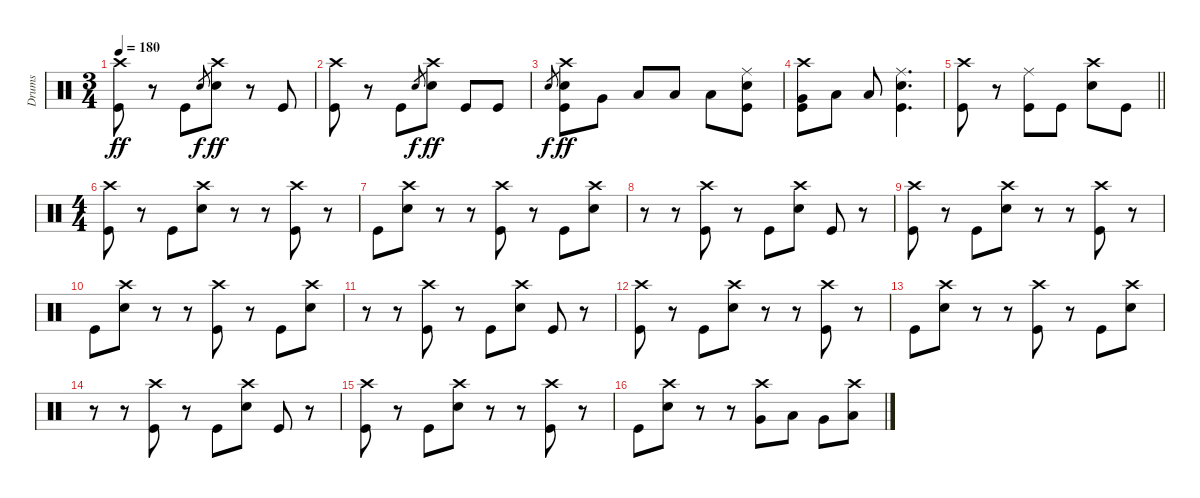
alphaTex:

\track ("Drums" "Drums") {instrument percussion}
\staff {score}
\articulation defaults
\ts (3 4)
\tempo 180
\clef neutral
\ks c
("Crash high (hit)" "Kick (hit)").8{dy ff} r.8 "Kick (hit)".8 "Snare (hit) 2".8{gr dy f} ("Crash high (hit)" "Snare (hit) 2").8{dy ff} r.8 "Kick (hit)".8 |
("Crash high (hit)" "Kick (hit)").8 r.8 "Kick (hit)".8 "Snare (hit) 2".8{gr dy f} ("Crash high (hit)" "Snare (hit) 2").8{dy ff} "Kick (hit)".8 "Kick (hit)".8 |
"Snare (hit) 2".8{gr dy f} ("Crash high (hit)" "Snare (hit) 2" "Kick (hit)").8{dy ff} "Very Low Tom (hit)".8 "Low Floor Tom (hit)".8 "Low Floor Tom (hit)".8 "Low Floor Tom (hit)".8 ("Ride (middle)" "Snare (hit) 2" "Kick (hit)").8 |
("Crash high (hit)" "Very Low Tom (hit)" "Kick (hit)").8 "Low Floor Tom (hit)".8 "Low Floor Tom (hit)".8 ("Ride (middle)" "Snare (hit) 2" "Kick (hit)").4{d} |
\barLineRight lightlight
("Crash high (hit)" "Kick (hit)").8 r.8 ("Ride (middle)" "Kick (hit)").8 "Kick (hit)".8 ("Crash high (hit)" "Snare (hit) 2").8 "Kick (hit)".8 |
\ts (4 4)
("Crash high (hit)" "Kick (hit)").8 r.8 "Kick (hit)".8 ("Crash high (hit)" "Snare (hit) 2").8 r.8 r.8 ("Crash high (hit)" "Kick (hit)").8 r.8 |
"Kick (hit)".8 ("Crash high (hit)" "Snare (hit) 2").8 r.8 r.8 ("Crash high (hit)" "Kick (hit)").8 r.8 "Kick (hit)".8 ("Crash high (hit)" "Snare (hit) 2").8 |
r.8 r.8 ("Crash high (hit)" "Kick (hit)").8 r.8 "Kick (hit)".8 ("Crash high (hit)" "Snare (hit) 2").8 "Kick (hit)".8 r.8 |
("Crash high (hit)" "Kick (hit)").8 r.8 "Kick (hit)".8 ("Crash high (hit)" "Snare (hit) 2").8 r.8 r.8 ("Crash high (hit)" "Kick (hit)").8 r.8 |
"Kick (hit)".8 ("Crash high (hit)" "Snare (hit) 2").8 r.8 r.8 ("Crash high (hit)" "Kick (hit)").8 r.8 "Kick (hit)".8 ("Crash high (hit)" "Snare (hit) 2").8 |
r.8 r.8 ("Crash high (hit)" "Kick (hit)").8 r.8 "Kick (hit)".8 ("Crash high (hit)" "Snare (hit) 2").8 "Kick (hit)".8 r.8 |
("Crash high (hit)" "Kick (hit)").8 r.8 "Kick (hit)".8 ("Crash high (hit)" "Snare (hit) 2").8 r.8 r.8 ("Crash high (hit)" "Kick (hit)").8 r.8 |
"Kick (hit)".8 ("Crash high (hit)" "Snare (hit) 2").8 r.8 r.8 ("Crash high (hit)" "Kick (hit)").8 r.8 "Kick (hit)".8 ("Crash high (hit)" "Snare (hit) 2").8 |
r.8 r.8 ("Crash high (hit)" "Kick (hit)").8 r.8 "Kick (hit)".8 ("Crash high (hit)" "Snare (hit) 2").8 "Kick (hit)".8 r.8 |
("Crash high (hit)" "Kick (hit)").8 r.8 "Kick (hit)".8 ("Crash high (hit)" "Snare (hit) 2").8 r.8 r.8 ("Crash high (hit)" "Kick (hit)").8 r.8 |
"Kick (hit)".8 ("Crash high (hit)" "Snare (hit) 2").8 r.8 r.8 ("Crash high (hit)" "Very Low Tom (hit)").8 "Low Floor Tom (hit)".8 "Very Low Tom (hit)".8 ("Crash high (hit)" "Low Floor Tom (hit)").8
